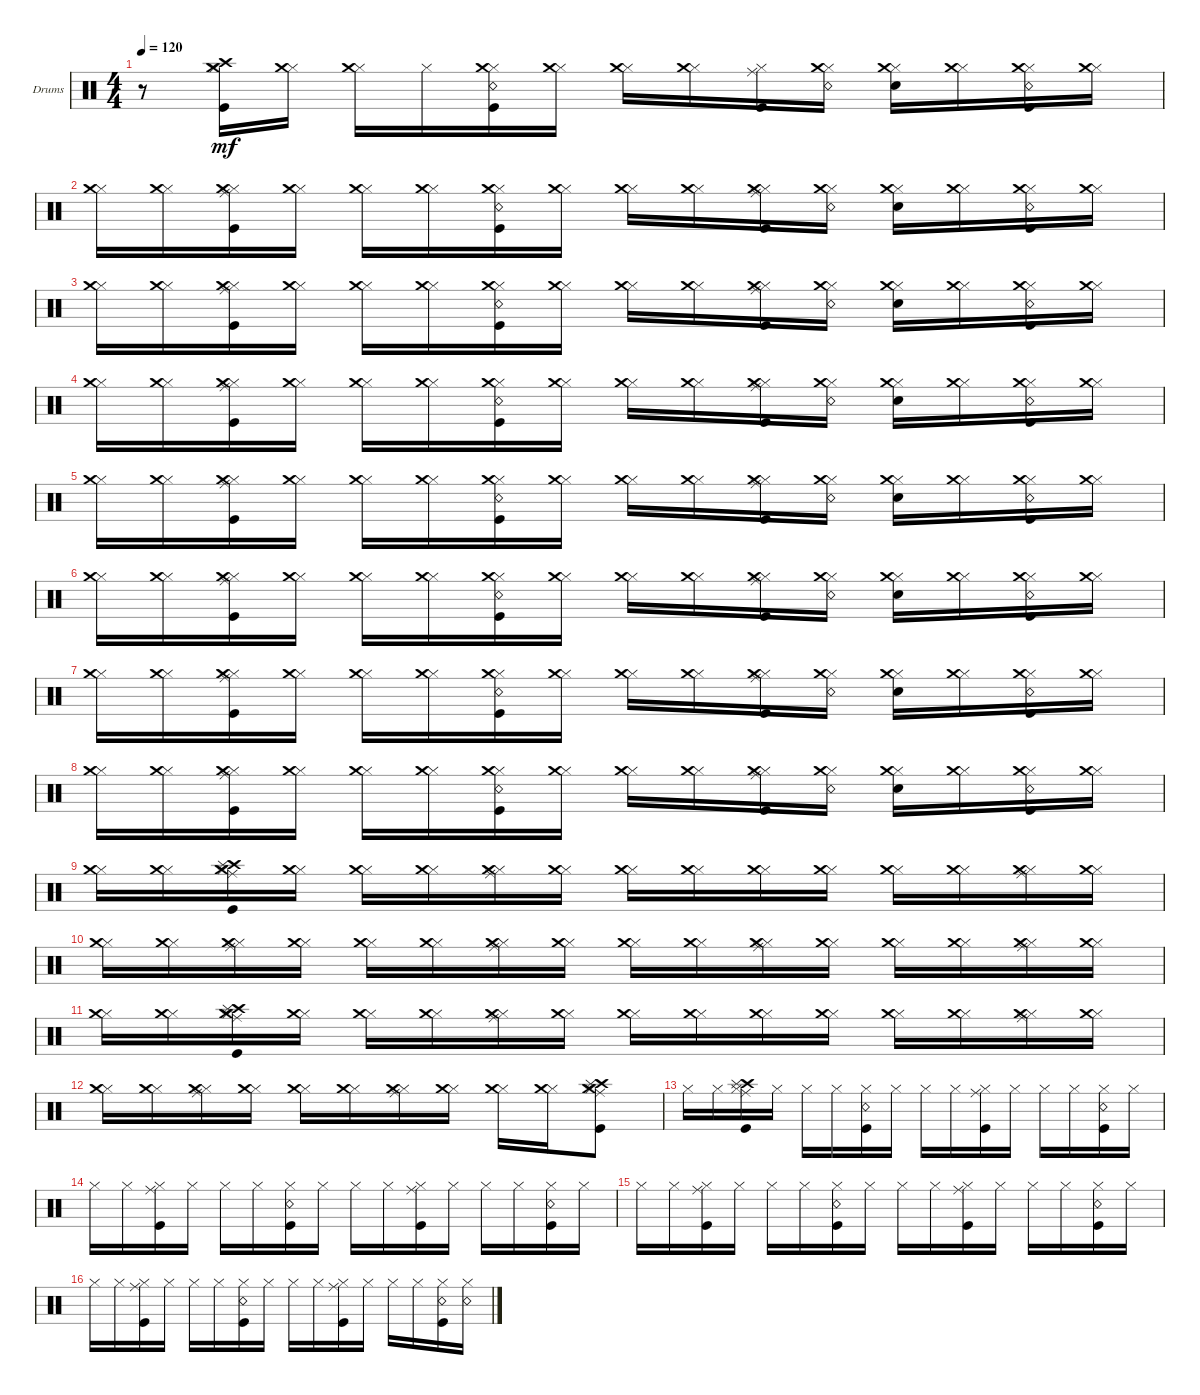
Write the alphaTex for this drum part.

\defaultSystemsLayout 4
\bracketExtendMode groupsimilarinstruments
\firstSystemTrackNameOrientation horizontal
\otherSystemsTrackNameOrientation horizontal
\track ("Нюта" "Drums") {instrument percussion}
\staff {score}
\articulation defaults
\ts (4 4)
\tempo 120
\clef neutral
\ks c
r.8{dy mf} ("Hi-Hat (closed)" "Crash high (hit)" "Kick (hit)" "Crash medium (hit)").16 ("Hi-Hat (closed)" "Crash medium (hit)").16 ("Hi-Hat (closed)" "Crash medium (hit)").16 "Hi-Hat (closed)".16 ("Hi-Hat (closed)" "Snare (rim shot)" "Kick (hit)" "Crash medium (hit)").16 ("Hi-Hat (closed)" "Crash medium (hit)").16 ("Hi-Hat (closed)" "Crash medium (hit)").16 ("Hi-Hat (closed)" "Crash medium (hit)").16 ("Hi-Hat (closed)" "Ride (middle)" "Kick (hit)").16 ("Hi-Hat (closed)" "Snare (rim shot)" "Crash medium (hit)").16 ("Hi-Hat (closed)" "Snare (hit) 2" "Crash medium (hit)").16 ("Hi-Hat (closed)" "Crash medium (hit)").16 ("Hi-Hat (closed)" "Snare (rim shot)" "Kick (hit)" "Crash medium (hit)").16 ("Hi-Hat (closed)" "Crash medium (hit)").16 |
("Hi-Hat (closed)" "Crash medium (hit)").16 ("Hi-Hat (closed)" "Crash medium (hit)").16 ("Hi-Hat (closed)" "Ride (middle)" "Kick (hit)" "Crash medium (hit)").16 ("Hi-Hat (closed)" "Crash medium (hit)").16 ("Hi-Hat (closed)" "Crash medium (hit)").16 ("Hi-Hat (closed)" "Crash medium (hit)").16 ("Hi-Hat (closed)" "Snare (rim shot)" "Kick (hit)" "Crash medium (hit)").16 ("Hi-Hat (closed)" "Crash medium (hit)").16 ("Hi-Hat (closed)" "Crash medium (hit)").16 ("Hi-Hat (closed)" "Crash medium (hit)").16 ("Hi-Hat (closed)" "Ride (middle)" "Kick (hit)" "Crash medium (hit)").16 ("Hi-Hat (closed)" "Snare (rim shot)" "Crash medium (hit)").16 ("Hi-Hat (closed)" "Snare (hit) 2" "Crash medium (hit)").16 ("Hi-Hat (closed)" "Crash medium (hit)").16 ("Hi-Hat (closed)" "Snare (rim shot)" "Kick (hit)" "Crash medium (hit)").16 ("Hi-Hat (closed)" "Crash medium (hit)").16 |
("Hi-Hat (closed)" "Crash medium (hit)").16 ("Hi-Hat (closed)" "Crash medium (hit)").16 ("Hi-Hat (closed)" "Ride (middle)" "Kick (hit)" "Crash medium (hit)").16 ("Hi-Hat (closed)" "Crash medium (hit)").16 ("Hi-Hat (closed)" "Crash medium (hit)").16 ("Hi-Hat (closed)" "Crash medium (hit)").16 ("Hi-Hat (closed)" "Snare (rim shot)" "Kick (hit)" "Crash medium (hit)").16 ("Hi-Hat (closed)" "Crash medium (hit)").16 ("Hi-Hat (closed)" "Crash medium (hit)").16 ("Hi-Hat (closed)" "Crash medium (hit)").16 ("Hi-Hat (closed)" "Ride (middle)" "Kick (hit)" "Crash medium (hit)").16 ("Hi-Hat (closed)" "Snare (rim shot)" "Crash medium (hit)").16 ("Hi-Hat (closed)" "Snare (hit) 2" "Crash medium (hit)").16 ("Hi-Hat (closed)" "Crash medium (hit)").16 ("Hi-Hat (closed)" "Snare (rim shot)" "Kick (hit)" "Crash medium (hit)").16 ("Hi-Hat (closed)" "Crash medium (hit)").16 |
("Hi-Hat (closed)" "Crash medium (hit)").16 ("Hi-Hat (closed)" "Crash medium (hit)").16 ("Hi-Hat (closed)" "Ride (middle)" "Kick (hit)" "Crash medium (hit)").16 ("Hi-Hat (closed)" "Crash medium (hit)").16 ("Hi-Hat (closed)" "Crash medium (hit)").16 ("Hi-Hat (closed)" "Crash medium (hit)").16 ("Hi-Hat (closed)" "Snare (rim shot)" "Kick (hit)" "Crash medium (hit)").16 ("Hi-Hat (closed)" "Crash medium (hit)").16 ("Hi-Hat (closed)" "Crash medium (hit)").16 ("Hi-Hat (closed)" "Crash medium (hit)").16 ("Hi-Hat (closed)" "Ride (middle)" "Kick (hit)" "Crash medium (hit)").16 ("Hi-Hat (closed)" "Snare (rim shot)" "Crash medium (hit)").16 ("Hi-Hat (closed)" "Snare (hit) 2" "Crash medium (hit)").16 ("Hi-Hat (closed)" "Crash medium (hit)").16 ("Hi-Hat (closed)" "Snare (rim shot)" "Kick (hit)" "Crash medium (hit)").16 ("Hi-Hat (closed)" "Crash medium (hit)").16 |
("Hi-Hat (closed)" "Crash medium (hit)").16 ("Hi-Hat (closed)" "Crash medium (hit)").16 ("Hi-Hat (closed)" "Ride (middle)" "Kick (hit)" "Crash medium (hit)").16 ("Hi-Hat (closed)" "Crash medium (hit)").16 ("Hi-Hat (closed)" "Crash medium (hit)").16 ("Hi-Hat (closed)" "Crash medium (hit)").16 ("Hi-Hat (closed)" "Snare (rim shot)" "Kick (hit)" "Crash medium (hit)").16 ("Hi-Hat (closed)" "Crash medium (hit)").16 ("Hi-Hat (closed)" "Crash medium (hit)").16 ("Hi-Hat (closed)" "Crash medium (hit)").16 ("Hi-Hat (closed)" "Ride (middle)" "Kick (hit)" "Crash medium (hit)").16 ("Hi-Hat (closed)" "Snare (rim shot)" "Crash medium (hit)").16 ("Hi-Hat (closed)" "Snare (hit) 2" "Crash medium (hit)").16 ("Hi-Hat (closed)" "Crash medium (hit)").16 ("Hi-Hat (closed)" "Snare (rim shot)" "Kick (hit)" "Crash medium (hit)").16 ("Hi-Hat (closed)" "Crash medium (hit)").16 |
("Hi-Hat (closed)" "Crash medium (hit)").16 ("Hi-Hat (closed)" "Crash medium (hit)").16 ("Hi-Hat (closed)" "Ride (middle)" "Kick (hit)" "Crash medium (hit)").16 ("Hi-Hat (closed)" "Crash medium (hit)").16 ("Hi-Hat (closed)" "Crash medium (hit)").16 ("Hi-Hat (closed)" "Crash medium (hit)").16 ("Hi-Hat (closed)" "Snare (rim shot)" "Kick (hit)" "Crash medium (hit)").16 ("Hi-Hat (closed)" "Crash medium (hit)").16 ("Hi-Hat (closed)" "Crash medium (hit)").16 ("Hi-Hat (closed)" "Crash medium (hit)").16 ("Hi-Hat (closed)" "Ride (middle)" "Kick (hit)" "Crash medium (hit)").16 ("Hi-Hat (closed)" "Snare (rim shot)" "Crash medium (hit)").16 ("Hi-Hat (closed)" "Snare (hit) 2" "Crash medium (hit)").16 ("Hi-Hat (closed)" "Crash medium (hit)").16 ("Hi-Hat (closed)" "Snare (rim shot)" "Kick (hit)" "Crash medium (hit)").16 ("Hi-Hat (closed)" "Crash medium (hit)").16 |
("Hi-Hat (closed)" "Crash medium (hit)").16 ("Hi-Hat (closed)" "Crash medium (hit)").16 ("Hi-Hat (closed)" "Ride (middle)" "Kick (hit)" "Crash medium (hit)").16 ("Hi-Hat (closed)" "Crash medium (hit)").16 ("Hi-Hat (closed)" "Crash medium (hit)").16 ("Hi-Hat (closed)" "Crash medium (hit)").16 ("Hi-Hat (closed)" "Snare (rim shot)" "Kick (hit)" "Crash medium (hit)").16 ("Hi-Hat (closed)" "Crash medium (hit)").16 ("Hi-Hat (closed)" "Crash medium (hit)").16 ("Hi-Hat (closed)" "Crash medium (hit)").16 ("Hi-Hat (closed)" "Ride (middle)" "Kick (hit)" "Crash medium (hit)").16 ("Hi-Hat (closed)" "Snare (rim shot)" "Crash medium (hit)").16 ("Hi-Hat (closed)" "Snare (hit) 2" "Crash medium (hit)").16 ("Hi-Hat (closed)" "Crash medium (hit)").16 ("Hi-Hat (closed)" "Snare (rim shot)" "Kick (hit)" "Crash medium (hit)").16 ("Hi-Hat (closed)" "Crash medium (hit)").16 |
("Hi-Hat (closed)" "Crash medium (hit)").16 ("Hi-Hat (closed)" "Crash medium (hit)").16 ("Hi-Hat (closed)" "Ride (middle)" "Kick (hit)" "Crash medium (hit)").16 ("Hi-Hat (closed)" "Crash medium (hit)").16 ("Hi-Hat (closed)" "Crash medium (hit)").16 ("Hi-Hat (closed)" "Crash medium (hit)").16 ("Hi-Hat (closed)" "Snare (rim shot)" "Kick (hit)" "Crash medium (hit)").16 ("Hi-Hat (closed)" "Crash medium (hit)").16 ("Hi-Hat (closed)" "Crash medium (hit)").16 ("Hi-Hat (closed)" "Crash medium (hit)").16 ("Hi-Hat (closed)" "Ride (middle)" "Kick (hit)" "Crash medium (hit)").16 ("Hi-Hat (closed)" "Snare (rim shot)" "Crash medium (hit)").16 ("Hi-Hat (closed)" "Snare (hit) 2" "Crash medium (hit)").16 ("Hi-Hat (closed)" "Crash medium (hit)").16 ("Hi-Hat (closed)" "Snare (rim shot)" "Kick (hit)" "Crash medium (hit)").16 ("Hi-Hat (closed)" "Crash medium (hit)").16 |
("Hi-Hat (closed)" "Crash medium (hit)").16 ("Hi-Hat (closed)" "Crash medium (hit)").16 ("Hi-Hat (closed)" "Ride (middle)" "Kick (hit)" "Crash medium (hit)" "Crash high (hit)" "Splash (hit)").16 ("Hi-Hat (closed)" "Crash medium (hit)").16 ("Hi-Hat (closed)" "Crash medium (hit)").16 ("Hi-Hat (closed)" "Crash medium (hit)").16 ("Hi-Hat (closed)" "Crash medium (hit)" "Ride (middle)").16 ("Hi-Hat (closed)" "Crash medium (hit)").16 ("Hi-Hat (closed)" "Crash medium (hit)").16 ("Hi-Hat (closed)" "Crash medium (hit)").16 ("Hi-Hat (closed)" "Crash medium (hit)").16 ("Hi-Hat (closed)" "Crash medium (hit)").16 ("Hi-Hat (closed)" "Crash medium (hit)").16 ("Hi-Hat (closed)" "Crash medium (hit)").16 ("Hi-Hat (closed)" "Crash medium (hit)" "Ride (middle)").16 ("Hi-Hat (closed)" "Crash medium (hit)").16 |
("Hi-Hat (closed)" "Crash medium (hit)").16 ("Hi-Hat (closed)" "Crash medium (hit)").16 ("Hi-Hat (closed)" "Crash medium (hit)" "Ride (middle)").16 ("Hi-Hat (closed)" "Crash medium (hit)").16 ("Hi-Hat (closed)" "Crash medium (hit)").16 ("Hi-Hat (closed)" "Crash medium (hit)").16 ("Hi-Hat (closed)" "Crash medium (hit)" "Ride (middle)").16 ("Hi-Hat (closed)" "Crash medium (hit)").16 ("Hi-Hat (closed)" "Crash medium (hit)").16 ("Hi-Hat (closed)" "Crash medium (hit)").16 ("Hi-Hat (closed)" "Crash medium (hit)" "Ride (middle)").16 ("Hi-Hat (closed)" "Crash medium (hit)").16 ("Hi-Hat (closed)" "Crash medium (hit)").16 ("Hi-Hat (closed)" "Crash medium (hit)").16 ("Hi-Hat (closed)" "Crash medium (hit)" "Ride (middle)").16 ("Hi-Hat (closed)" "Crash medium (hit)").16 |
("Hi-Hat (closed)" "Crash medium (hit)").16 ("Hi-Hat (closed)" "Crash medium (hit)").16 ("Hi-Hat (closed)" "Ride (middle)" "Kick (hit)" "Crash medium (hit)" "Crash high (hit)" "Splash (hit)").16 ("Hi-Hat (closed)" "Crash medium (hit)").16 ("Hi-Hat (closed)" "Crash medium (hit)").16 ("Hi-Hat (closed)" "Crash medium (hit)").16 ("Hi-Hat (closed)" "Crash medium (hit)" "Ride (middle)").16 ("Hi-Hat (closed)" "Crash medium (hit)").16 ("Hi-Hat (closed)" "Crash medium (hit)").16 ("Hi-Hat (closed)" "Crash medium (hit)").16 ("Hi-Hat (closed)" "Crash medium (hit)").16 ("Hi-Hat (closed)" "Crash medium (hit)").16 ("Hi-Hat (closed)" "Crash medium (hit)").16 ("Hi-Hat (closed)" "Crash medium (hit)").16 ("Hi-Hat (closed)" "Crash medium (hit)" "Ride (middle)").16 ("Hi-Hat (closed)" "Crash medium (hit)").16 |
("Hi-Hat (closed)" "Crash medium (hit)").16 ("Hi-Hat (closed)" "Crash medium (hit)").16 ("Hi-Hat (closed)" "Crash medium (hit)" "Ride (middle)").16 ("Hi-Hat (closed)" "Crash medium (hit)").16 ("Hi-Hat (closed)" "Crash medium (hit)").16 ("Hi-Hat (closed)" "Crash medium (hit)").16 ("Hi-Hat (closed)" "Crash medium (hit)" "Ride (middle)").16 ("Hi-Hat (closed)" "Crash medium (hit)").16 ("Hi-Hat (closed)" "Crash medium (hit)").16 ("Hi-Hat (closed)" "Crash medium (hit)").16 ("Hi-Hat (closed)" "Crash medium (hit)" "Ride (middle)" "Crash high (hit)" "Splash (hit)" "Kick (hit)").8 |
"Hi-Hat (closed)".16 "Hi-Hat (closed)".16 ("Hi-Hat (closed)" "Ride (middle)" "Kick (hit)" "Crash high (hit)" "Splash (hit)").16 "Hi-Hat (closed)".16 "Hi-Hat (closed)".16 "Hi-Hat (closed)".16 ("Hi-Hat (closed)" "Snare (rim shot)" "Kick (hit)").16 "Hi-Hat (closed)".16 "Hi-Hat (closed)".16 "Hi-Hat (closed)".16 ("Hi-Hat (closed)" "Ride (middle)" "Kick (hit)").16 "Hi-Hat (closed)".16 "Hi-Hat (closed)".16 "Hi-Hat (closed)".16 ("Hi-Hat (closed)" "Snare (rim shot)" "Kick (hit)").16 "Hi-Hat (closed)".16 |
"Hi-Hat (closed)".16 "Hi-Hat (closed)".16 ("Hi-Hat (closed)" "Ride (middle)" "Kick (hit)").16 "Hi-Hat (closed)".16 "Hi-Hat (closed)".16 "Hi-Hat (closed)".16 ("Hi-Hat (closed)" "Snare (rim shot)" "Kick (hit)").16 "Hi-Hat (closed)".16 "Hi-Hat (closed)".16 "Hi-Hat (closed)".16 ("Hi-Hat (closed)" "Ride (middle)" "Kick (hit)").16 "Hi-Hat (closed)".16 "Hi-Hat (closed)".16 "Hi-Hat (closed)".16 ("Hi-Hat (closed)" "Snare (rim shot)" "Kick (hit)").16 "Hi-Hat (closed)".16 |
"Hi-Hat (closed)".16 "Hi-Hat (closed)".16 ("Hi-Hat (closed)" "Ride (middle)" "Kick (hit)").16 "Hi-Hat (closed)".16 "Hi-Hat (closed)".16 "Hi-Hat (closed)".16 ("Hi-Hat (closed)" "Snare (rim shot)" "Kick (hit)").16 "Hi-Hat (closed)".16 "Hi-Hat (closed)".16 "Hi-Hat (closed)".16 ("Hi-Hat (closed)" "Ride (middle)" "Kick (hit)").16 "Hi-Hat (closed)".16 "Hi-Hat (closed)".16 "Hi-Hat (closed)".16 ("Hi-Hat (closed)" "Snare (rim shot)" "Kick (hit)").16 "Hi-Hat (closed)".16 |
"Hi-Hat (closed)".16 "Hi-Hat (closed)".16 ("Hi-Hat (closed)" "Ride (middle)" "Kick (hit)").16 "Hi-Hat (closed)".16 "Hi-Hat (closed)".16 "Hi-Hat (closed)".16 ("Hi-Hat (closed)" "Snare (rim shot)" "Kick (hit)").16 "Hi-Hat (closed)".16 "Hi-Hat (closed)".16 "Hi-Hat (closed)".16 ("Hi-Hat (closed)" "Ride (middle)" "Kick (hit)").16 "Hi-Hat (closed)".16 "Hi-Hat (closed)".16 "Hi-Hat (closed)".16 ("Hi-Hat (closed)" "Snare (rim shot)" "Kick (hit)").16 ("Hi-Hat (closed)" "Snare (rim shot)").16
